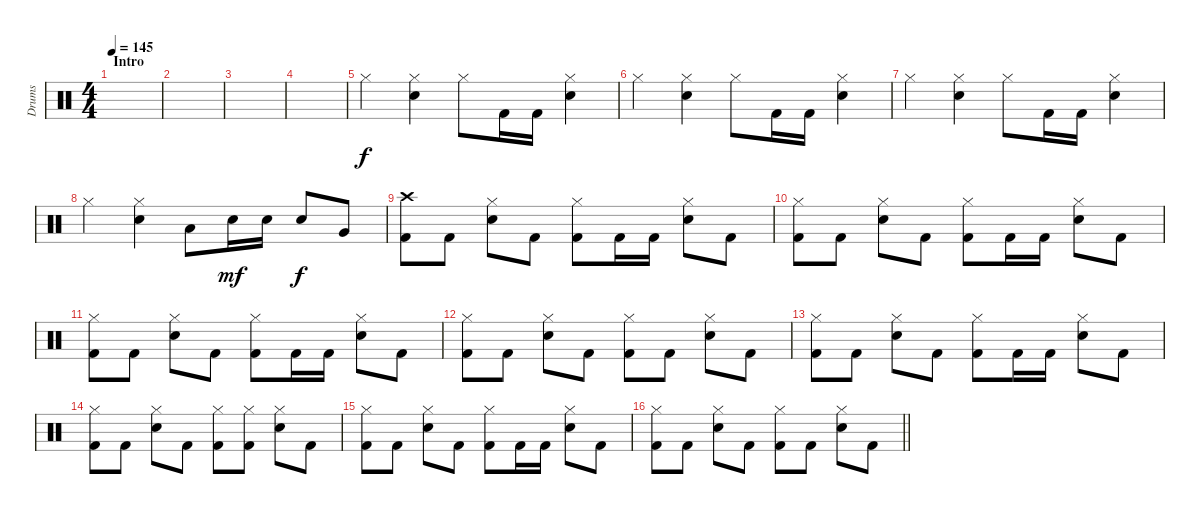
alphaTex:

\track ("Drums" "Drums") {instrument percussion}
\staff {score}
\articulation defaults
\ts (4 4)
\section ("" "Intro")
\tempo 145
\clef neutral
\ks c
|
|
|
|
"Hi-Hat (closed)".4 ("Hi-Hat (closed)" "Snare (hit) 2").4 "Hi-Hat (closed)".8 "Kick (hit) 2".16 "Kick (hit) 2".16 ("Hi-Hat (closed)" "Snare (hit) 2").4 |
"Hi-Hat (closed)".4 ("Hi-Hat (closed)" "Snare (hit) 2").4 "Hi-Hat (closed)".8 "Kick (hit) 2".16 "Kick (hit) 2".16 ("Hi-Hat (closed)" "Snare (hit) 2").4 |
"Hi-Hat (closed)".4 ("Hi-Hat (closed)" "Snare (hit) 2").4 "Hi-Hat (closed)".8 "Kick (hit) 2".16 "Kick (hit) 2".16 ("Hi-Hat (closed)" "Snare (hit) 2").4 |
"Hi-Hat (closed)".4 ("Hi-Hat (closed)" "Snare (hit) 2").4 "Low Tom (hit)".8 "Snare (hit) 2".16{dy mf} "Snare (hit) 2".16 "Snare (hit) 2".8{dy f} "Very Low Tom (hit)".8 |
("Crash high (hit)" "Kick (hit) 2").8 "Kick (hit) 2".8 ("Hi-Hat (closed)" "Snare (hit) 2").8 "Kick (hit) 2".8 ("Hi-Hat (closed)" "Kick (hit) 2").8 "Kick (hit) 2".16 "Kick (hit) 2".16 ("Hi-Hat (closed)" "Snare (hit) 2").8 "Kick (hit) 2".8 |
("Hi-Hat (closed)" "Kick (hit) 2").8 "Kick (hit) 2".8 ("Hi-Hat (closed)" "Snare (hit) 2").8 "Kick (hit) 2".8 ("Hi-Hat (closed)" "Kick (hit) 2").8 "Kick (hit) 2".16 "Kick (hit) 2".16 ("Hi-Hat (closed)" "Snare (hit) 2").8 "Kick (hit) 2".8 |
("Hi-Hat (closed)" "Kick (hit) 2").8 "Kick (hit) 2".8 ("Hi-Hat (closed)" "Snare (hit) 2").8 "Kick (hit) 2".8 ("Hi-Hat (closed)" "Kick (hit) 2").8 "Kick (hit) 2".16 "Kick (hit) 2".16 ("Hi-Hat (closed)" "Snare (hit) 2").8 "Kick (hit) 2".8 |
("Hi-Hat (closed)" "Kick (hit) 2").8 "Kick (hit) 2".8 ("Hi-Hat (closed)" "Snare (hit) 2").8 "Kick (hit) 2".8 ("Hi-Hat (closed)" "Kick (hit) 2").8 "Kick (hit) 2".8 ("Hi-Hat (closed)" "Snare (hit) 2").8 "Kick (hit) 2".8 |
("Hi-Hat (closed)" "Kick (hit) 2").8 "Kick (hit) 2".8 ("Hi-Hat (closed)" "Snare (hit) 2").8 "Kick (hit) 2".8 ("Hi-Hat (closed)" "Kick (hit) 2").8 "Kick (hit) 2".16 "Kick (hit) 2".16 ("Hi-Hat (closed)" "Snare (hit) 2").8 "Kick (hit) 2".8 |
("Hi-Hat (closed)" "Kick (hit) 2").8 "Kick (hit) 2".8 ("Hi-Hat (closed)" "Snare (hit) 2").8 "Kick (hit) 2".8 ("Hi-Hat (closed)" "Kick (hit) 2").8 ("Hi-Hat (closed)" "Kick (hit) 2").8 ("Hi-Hat (closed)" "Snare (hit) 2").8 "Kick (hit) 2".8 |
("Hi-Hat (closed)" "Kick (hit) 2").8 "Kick (hit) 2".8 ("Hi-Hat (closed)" "Snare (hit) 2").8 "Kick (hit) 2".8 ("Hi-Hat (closed)" "Kick (hit) 2").8 "Kick (hit) 2".16 "Kick (hit) 2".16 ("Hi-Hat (closed)" "Snare (hit) 2").8 "Kick (hit) 2".8 |
\barLineRight lightlight
("Hi-Hat (closed)" "Kick (hit) 2").8 "Kick (hit) 2".8 ("Hi-Hat (closed)" "Snare (hit) 2").8 "Kick (hit) 2".8 ("Hi-Hat (closed)" "Kick (hit) 2").8 "Kick (hit) 2".8 ("Hi-Hat (closed)" "Snare (hit) 2").8 "Kick (hit) 2".8
